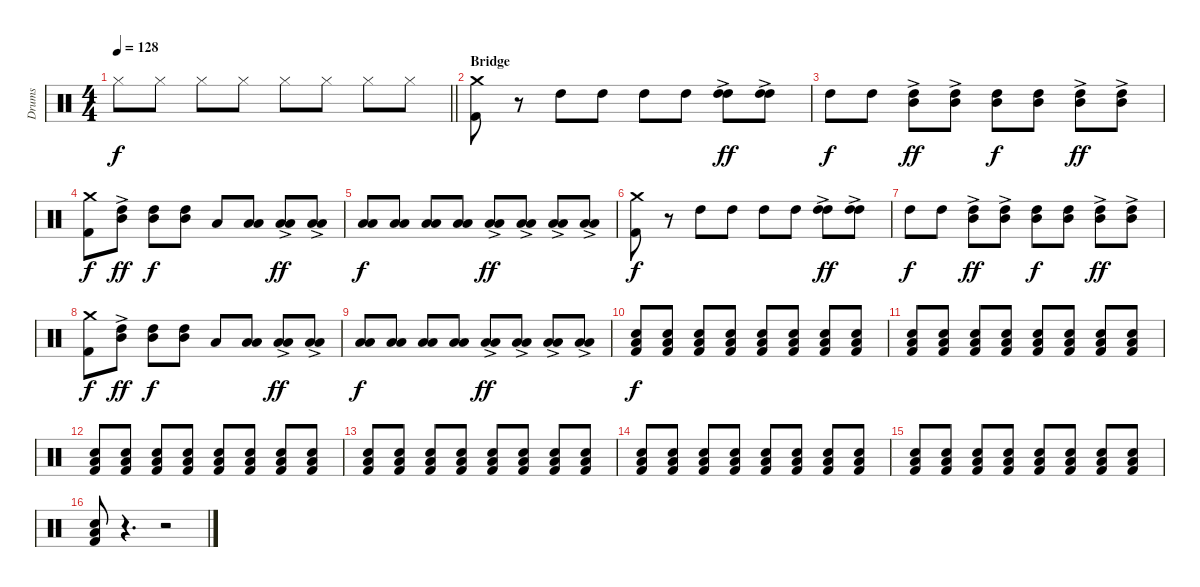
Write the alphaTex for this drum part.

\track ("Drums" "Drums") {instrument percussion}
\staff {score}
\articulation defaults
\ts (4 4)
\tempo 128
\clef neutral
\barLineRight lightlight
\ks c "Hi-Hat (closed)".8{dy f} "Hi-Hat (closed)".8 "Hi-Hat (closed)".8 "Hi-Hat (closed)".8 "Hi-Hat (closed)".8 "Hi-Hat (closed)".8 "Hi-Hat (closed)".8 "Hi-Hat (closed)".8
|
\section ("" "Bridge")
("Crash medium (hit)" "Kick (hit) 2").8{balance 8} r.8 "High Tom (hit)".8{volume 13 balance 12} "High Tom (hit)".8 "High Tom (hit)".8 "High Tom (hit)".8 ("High Tom (hit)"{ac} "High Tom (hit)"{ac}).8{dy ff volume 16} ("High Tom (hit)"{ac} "High Tom (hit)"{ac}).8 |
"High Tom (hit)".8{dy f volume 13 balance 11} "High Tom (hit)".8 ("High Tom (hit)"{ac} "Mid Tom (hit)"{ac}).8{dy ff volume 16} ("High Tom (hit)"{ac} "Mid Tom (hit)"{ac}).8 ("High Tom (hit)" "Mid Tom (hit)").8{dy f volume 13} ("High Tom (hit)" "Mid Tom (hit)").8 ("High Tom (hit)"{ac} "Mid Tom (hit)"{ac}).8{dy ff volume 16} ("High Tom (hit)"{ac} "Mid Tom (hit)"{ac}).8 |
("Crash medium (hit)" "Kick (hit) 2").8{dy f} ("High Tom (hit)"{ac} "Mid Tom (hit)"{ac}).8{dy ff} ("High Tom (hit)" "Mid Tom (hit)").8{dy f volume 13 balance 6} ("High Tom (hit)" "Mid Tom (hit)").8 "Low Tom (hit)".8 ("Low Tom (hit)" "Low Tom (hit)").8 ("Low Tom (hit)"{ac} "Low Tom (hit)"{ac}).8{dy ff volume 16} ("Low Tom (hit)"{ac} "Low Tom (hit)"{ac}).8 |
("Low Tom (hit)" "Low Floor Tom (hit)").8{dy f volume 13 balance 4} ("Low Tom (hit)" "Low Floor Tom (hit)").8 ("Low Tom (hit)" "Low Floor Tom (hit)").8 ("Low Tom (hit)" "Low Floor Tom (hit)").8 ("Low Floor Tom (hit)"{ac} "Low Floor Tom (hit)"{ac}).8{dy ff volume 16} ("Low Floor Tom (hit)"{ac} "Low Floor Tom (hit)"{ac}).8 ("Low Floor Tom (hit)"{ac} "Low Floor Tom (hit)"{ac}).8 ("Low Floor Tom (hit)"{ac} "Low Floor Tom (hit)"{ac}).8 |
("Crash medium (hit)" "Kick (hit) 2").8{dy f balance 8} r.8 "High Tom (hit)".8{volume 13 balance 12} "High Tom (hit)".8 "High Tom (hit)".8 "High Tom (hit)".8 ("High Tom (hit)"{ac} "High Tom (hit)"{ac}).8{dy ff volume 16} ("High Tom (hit)"{ac} "High Tom (hit)"{ac}).8 |
"High Tom (hit)".8{dy f volume 13 balance 11} "High Tom (hit)".8 ("High Tom (hit)"{ac} "Mid Tom (hit)"{ac}).8{dy ff volume 16} ("High Tom (hit)"{ac} "Mid Tom (hit)"{ac}).8 ("High Tom (hit)" "Mid Tom (hit)").8{dy f volume 13} ("High Tom (hit)" "Mid Tom (hit)").8 ("High Tom (hit)"{ac} "Mid Tom (hit)"{ac}).8{dy ff volume 16} ("High Tom (hit)"{ac} "Mid Tom (hit)"{ac}).8 |
("Crash medium (hit)" "Kick (hit) 2").8{dy f} ("High Tom (hit)"{ac} "Mid Tom (hit)"{ac}).8{dy ff} ("High Tom (hit)" "Mid Tom (hit)").8{dy f volume 13 balance 6} ("High Tom (hit)" "Mid Tom (hit)").8 "Low Tom (hit)".8 ("Low Tom (hit)" "Low Tom (hit)").8 ("Low Tom (hit)"{ac} "Low Tom (hit)"{ac}).8{dy ff volume 16} ("Low Tom (hit)"{ac} "Low Tom (hit)"{ac}).8 |
("Low Tom (hit)" "Low Floor Tom (hit)").8{dy f volume 13 balance 4} ("Low Tom (hit)" "Low Floor Tom (hit)").8 ("Low Tom (hit)" "Low Floor Tom (hit)").8 ("Low Tom (hit)" "Low Floor Tom (hit)").8 ("Low Floor Tom (hit)"{ac} "Low Floor Tom (hit)"{ac}).8{dy ff volume 16} ("Low Floor Tom (hit)"{ac} "Low Floor Tom (hit)"{ac}).8 ("Low Floor Tom (hit)"{ac} "Low Floor Tom (hit)"{ac}).8 ("Low Floor Tom (hit)"{ac} "Low Floor Tom (hit)"{ac}).8 |
("Electric Snare (hit)" "Low Floor Tom (hit)" "Kick (hit) 2").8{dy f volume 10} ("Electric Snare (hit)" "Low Floor Tom (hit)" "Kick (hit) 2").8 ("Electric Snare (hit)" "Low Floor Tom (hit)" "Kick (hit) 2").8 ("Electric Snare (hit)" "Low Floor Tom (hit)" "Kick (hit) 2").8 ("Electric Snare (hit)" "Low Floor Tom (hit)" "Kick (hit) 2").8 ("Electric Snare (hit)" "Low Floor Tom (hit)" "Kick (hit) 2").8 ("Electric Snare (hit)" "Low Floor Tom (hit)" "Kick (hit) 2").8 ("Electric Snare (hit)" "Low Floor Tom (hit)" "Kick (hit) 2").8 |
("Electric Snare (hit)" "Low Floor Tom (hit)" "Kick (hit) 2").8 ("Electric Snare (hit)" "Low Floor Tom (hit)" "Kick (hit) 2").8 ("Electric Snare (hit)" "Low Floor Tom (hit)" "Kick (hit) 2").8 ("Electric Snare (hit)" "Low Floor Tom (hit)" "Kick (hit) 2").8 ("Electric Snare (hit)" "Low Floor Tom (hit)" "Kick (hit) 2").8 ("Electric Snare (hit)" "Low Floor Tom (hit)" "Kick (hit) 2").8 ("Electric Snare (hit)" "Low Floor Tom (hit)" "Kick (hit) 2").8 ("Electric Snare (hit)" "Low Floor Tom (hit)" "Kick (hit) 2").8 |
("Electric Snare (hit)" "Low Floor Tom (hit)" "Kick (hit) 2").8 ("Electric Snare (hit)" "Low Floor Tom (hit)" "Kick (hit) 2").8 ("Electric Snare (hit)" "Low Floor Tom (hit)" "Kick (hit) 2").8 ("Electric Snare (hit)" "Low Floor Tom (hit)" "Kick (hit) 2").8 ("Electric Snare (hit)" "Low Floor Tom (hit)" "Kick (hit) 2").8 ("Electric Snare (hit)" "Low Floor Tom (hit)" "Kick (hit) 2").8 ("Electric Snare (hit)" "Low Floor Tom (hit)" "Kick (hit) 2").8 ("Electric Snare (hit)" "Low Floor Tom (hit)" "Kick (hit) 2").8 |
("Electric Snare (hit)" "Low Floor Tom (hit)" "Kick (hit) 2").8{volume 16} ("Electric Snare (hit)" "Low Floor Tom (hit)" "Kick (hit) 2").8 ("Electric Snare (hit)" "Low Floor Tom (hit)" "Kick (hit) 2").8 ("Electric Snare (hit)" "Low Floor Tom (hit)" "Kick (hit) 2").8 ("Electric Snare (hit)" "Low Floor Tom (hit)" "Kick (hit) 2").8 ("Electric Snare (hit)" "Low Floor Tom (hit)" "Kick (hit) 2").8 ("Electric Snare (hit)" "Low Floor Tom (hit)" "Kick (hit) 2").8 ("Electric Snare (hit)" "Low Floor Tom (hit)" "Kick (hit) 2").8 |
("Electric Snare (hit)" "Low Floor Tom (hit)" "Kick (hit) 2").8 ("Electric Snare (hit)" "Low Floor Tom (hit)" "Kick (hit) 2").8 ("Electric Snare (hit)" "Low Floor Tom (hit)" "Kick (hit) 2").8 ("Electric Snare (hit)" "Low Floor Tom (hit)" "Kick (hit) 2").8 ("Electric Snare (hit)" "Low Floor Tom (hit)" "Kick (hit) 2").8 ("Electric Snare (hit)" "Low Floor Tom (hit)" "Kick (hit) 2").8 ("Electric Snare (hit)" "Low Floor Tom (hit)" "Kick (hit) 2").8 ("Electric Snare (hit)" "Low Floor Tom (hit)" "Kick (hit) 2").8 |
("Electric Snare (hit)" "Low Floor Tom (hit)" "Kick (hit) 2").8 ("Electric Snare (hit)" "Low Floor Tom (hit)" "Kick (hit) 2").8 ("Electric Snare (hit)" "Low Floor Tom (hit)" "Kick (hit) 2").8 ("Electric Snare (hit)" "Low Floor Tom (hit)" "Kick (hit) 2").8 ("Electric Snare (hit)" "Low Floor Tom (hit)" "Kick (hit) 2").8 ("Electric Snare (hit)" "Low Floor Tom (hit)" "Kick (hit) 2").8 ("Electric Snare (hit)" "Low Floor Tom (hit)" "Kick (hit) 2").8 ("Electric Snare (hit)" "Low Floor Tom (hit)" "Kick (hit) 2").8 |
("Electric Snare (hit)" "Low Floor Tom (hit)" "Kick (hit) 2").8 r.4{d} r.2
